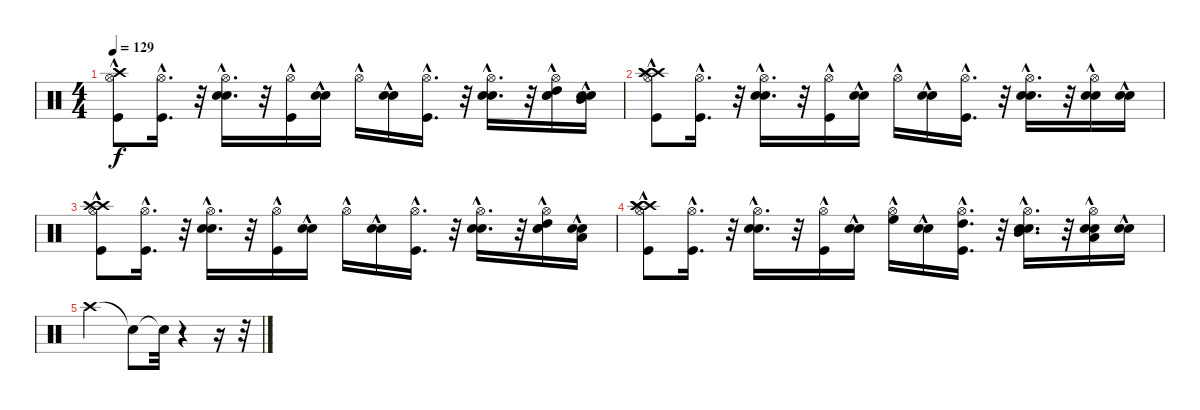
\track "" {instrument percussion}
\staff {score}
\articulation defaults
\ts (4 4)
\tempo 129
\clef neutral
\ks c
("Kick (hit)"{hac} "Hi-Hat (open)"{hac} "Crash high (hit)").8{dy f} ("Kick (hit)"{hac} "Hi-Hat (open)"{hac}).16{d} r.32 ("Electric Snare (hit)"{hac} "Snare (hit) 2"{hac} "Hi-Hat (open)"{hac}).16{d} r.32 ("Kick (hit)"{hac} "Hi-Hat (open)"{hac}).16 ("Electric Snare (hit)"{hac} "Snare (hit) 2"{hac}).16 "Hi-Hat (open)"{hac}.16 ("Electric Snare (hit)"{hac} "Snare (hit) 2"{hac}).16 ("Kick (hit)"{hac} "Hi-Hat (open)"{hac}).16{d} r.32 ("Electric Snare (hit)"{hac} "Snare (hit) 2"{hac} "Hi-Hat (open)"{hac}).16{d} r.32 ("Electric Snare (hit)" "High Tom (hit)"{hac} "Snare (hit) 2" "Hi-Hat (open)"{hac}).16 ("Electric Snare (hit)"{hac} "Mid Tom (hit)"{hac} "Snare (hit) 2"{hac}).16 |
("Crash high (hit)" "Crash high (hit)" "Crash high (hit)" "Kick (hit)"{hac} "Hi-Hat (open)"{hac}).8 ("Kick (hit)"{hac} "Hi-Hat (open)"{hac}).16{d} r.32 ("Electric Snare (hit)"{hac} "Snare (hit) 2"{hac} "Hi-Hat (open)"{hac}).16{d} r.32 ("Kick (hit)"{hac} "Hi-Hat (open)"{hac}).16 ("Electric Snare (hit)"{hac} "Snare (hit) 2"{hac}).16 "Hi-Hat (open)"{hac}.16 ("Electric Snare (hit)"{hac} "Snare (hit) 2"{hac}).16 ("Kick (hit)"{hac} "Hi-Hat (open)"{hac}).16{d} r.32 ("Electric Snare (hit)"{hac} "Snare (hit) 2"{hac} "Hi-Hat (open)"{hac}).16{d} r.32 ("Electric Snare (hit)" "Snare (hit) 2" "Hi-Hat (open)"{hac}).16 ("Electric Snare (hit)"{hac} "Snare (hit) 2"{hac}).16 |
("Crash high (hit)" "Crash high (hit)" "Kick (hit)"{hac} "Hi-Hat (open)"{hac}).8 ("Kick (hit)"{hac} "Hi-Hat (open)"{hac}).16{d} r.32 ("Electric Snare (hit)"{hac} "Snare (hit) 2"{hac} "Hi-Hat (open)"{hac}).16{d} r.32 ("Kick (hit)"{hac} "Hi-Hat (open)"{hac}).16 ("Electric Snare (hit)"{hac} "Snare (hit) 2"{hac}).16 "Hi-Hat (open)"{hac}.16 ("Electric Snare (hit)"{hac} "Snare (hit) 2"{hac}).16 ("Kick (hit)"{hac} "Hi-Hat (open)"{hac}).16{d} r.32 ("Electric Snare (hit)"{hac} "Snare (hit) 2"{hac} "Hi-Hat (open)"{hac}).16{d} r.32 ("Electric Snare (hit)" "High Tom (hit)"{hac} "Snare (hit) 2" "Hi-Hat (open)"{hac}).16 ("Electric Snare (hit)"{hac} "Low Tom (hit)"{hac} "Snare (hit) 2"{hac}).16 |
("Crash high (hit)" "Crash high (hit)" "Crash high (hit)" "Kick (hit)"{hac} "Hi-Hat (open)"{hac}).8 ("Kick (hit)"{hac} "Hi-Hat (open)"{hac}).16{d} r.32 ("Electric Snare (hit)"{hac} "Snare (hit) 2"{hac} "Hi-Hat (open)"{hac}).16{d} r.32 ("Kick (hit)"{hac} "Hi-Hat (open)"{hac}).16 ("Electric Snare (hit)"{hac} "Snare (hit) 2"{hac}).16 ("High Floor Tom (hit)"{hac} "Hi-Hat (open)"{hac}).16 ("Electric Snare (hit)"{hac} "Snare (hit) 2"{hac}).16 ("High Tom (hit)"{hac} "Kick (hit)"{hac} "Hi-Hat (open)"{hac}).16{d} r.32 ("Electric Snare (hit)"{hac} "Mid Tom (hit)"{hac} "Snare (hit) 2"{hac} "Hi-Hat (open)"{hac}).16{d} r.32 ("Electric Snare (hit)" "Snare (hit) 2" "Low Tom (hit)"{hac} "Hi-Hat (open)"{hac}).16 ("Electric Snare (hit)"{hac} "Snare (hit) 2").16 |
"Crash high (hit)".2 "Snare (hit)"{t}.8 "Snare (hit)"{t}.32 r.4 r.16 r.32
